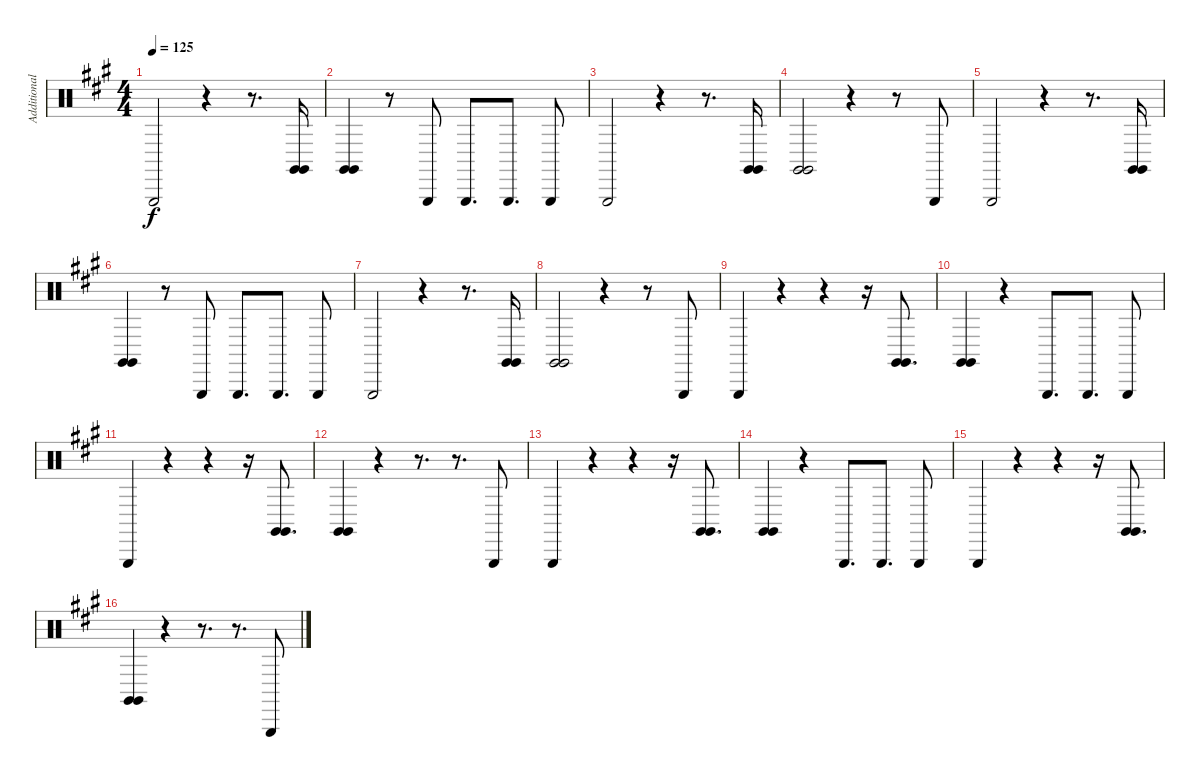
\track ("Additional Percussion II" "Additional") {instrument percussion}
\staff {score}
\articulation defaults
\ts (4 4)
\tempo 125
\clef neutral
\ks a "Triangle (hit)".2{dy f}
r.4 r.8{d} ("Claves (hit)" "Claves (hit)").16 |
("Claves (hit)" "Claves (hit)").4 r.8 "Triangle (hit)".8 "Triangle (hit)".8{d} "Triangle (hit)".8{d} "Triangle (hit)".8 |
"Triangle (hit)".2 r.4 r.8{d} ("Claves (hit)" "Claves (hit)").16 |
("Claves (hit)" "Claves (hit)").2 r.4 r.8 "Triangle (hit)".8 |
"Triangle (hit)".2 r.4 r.8{d} ("Claves (hit)" "Claves (hit)").16 |
("Claves (hit)" "Claves (hit)").4 r.8 "Triangle (hit)".8 "Triangle (hit)".8{d} "Triangle (hit)".8{d} "Triangle (hit)".8 |
"Triangle (hit)".2 r.4 r.8{d} ("Claves (hit)" "Claves (hit)").16 |
("Claves (hit)" "Claves (hit)").2 r.4 r.8 "Triangle (hit)".8 |
"Triangle (hit)".4 r.4 r.4 r.16 ("Claves (hit)" "Claves (hit)").8{d} |
("Claves (hit)" "Claves (hit)").4 r.4 "Triangle (hit)".8{d} "Triangle (hit)".8{d} "Triangle (hit)".8 |
"Triangle (hit)".4 r.4 r.4 r.16 ("Claves (hit)" "Claves (hit)").8{d} |
("Claves (hit)" "Claves (hit)").4 r.4 r.8{d} r.8{d} "Triangle (hit)".8 |
"Triangle (hit)".4 r.4 r.4 r.16 ("Claves (hit)" "Claves (hit)").8{d} |
("Claves (hit)" "Claves (hit)").4 r.4 "Triangle (hit)".8{d} "Triangle (hit)".8{d} "Triangle (hit)".8 |
"Triangle (hit)".4 r.4 r.4 r.16 ("Claves (hit)" "Claves (hit)").8{d} |
("Claves (hit)" "Claves (hit)").4 r.4 r.8{d} r.8{d} "Triangle (hit)".8
